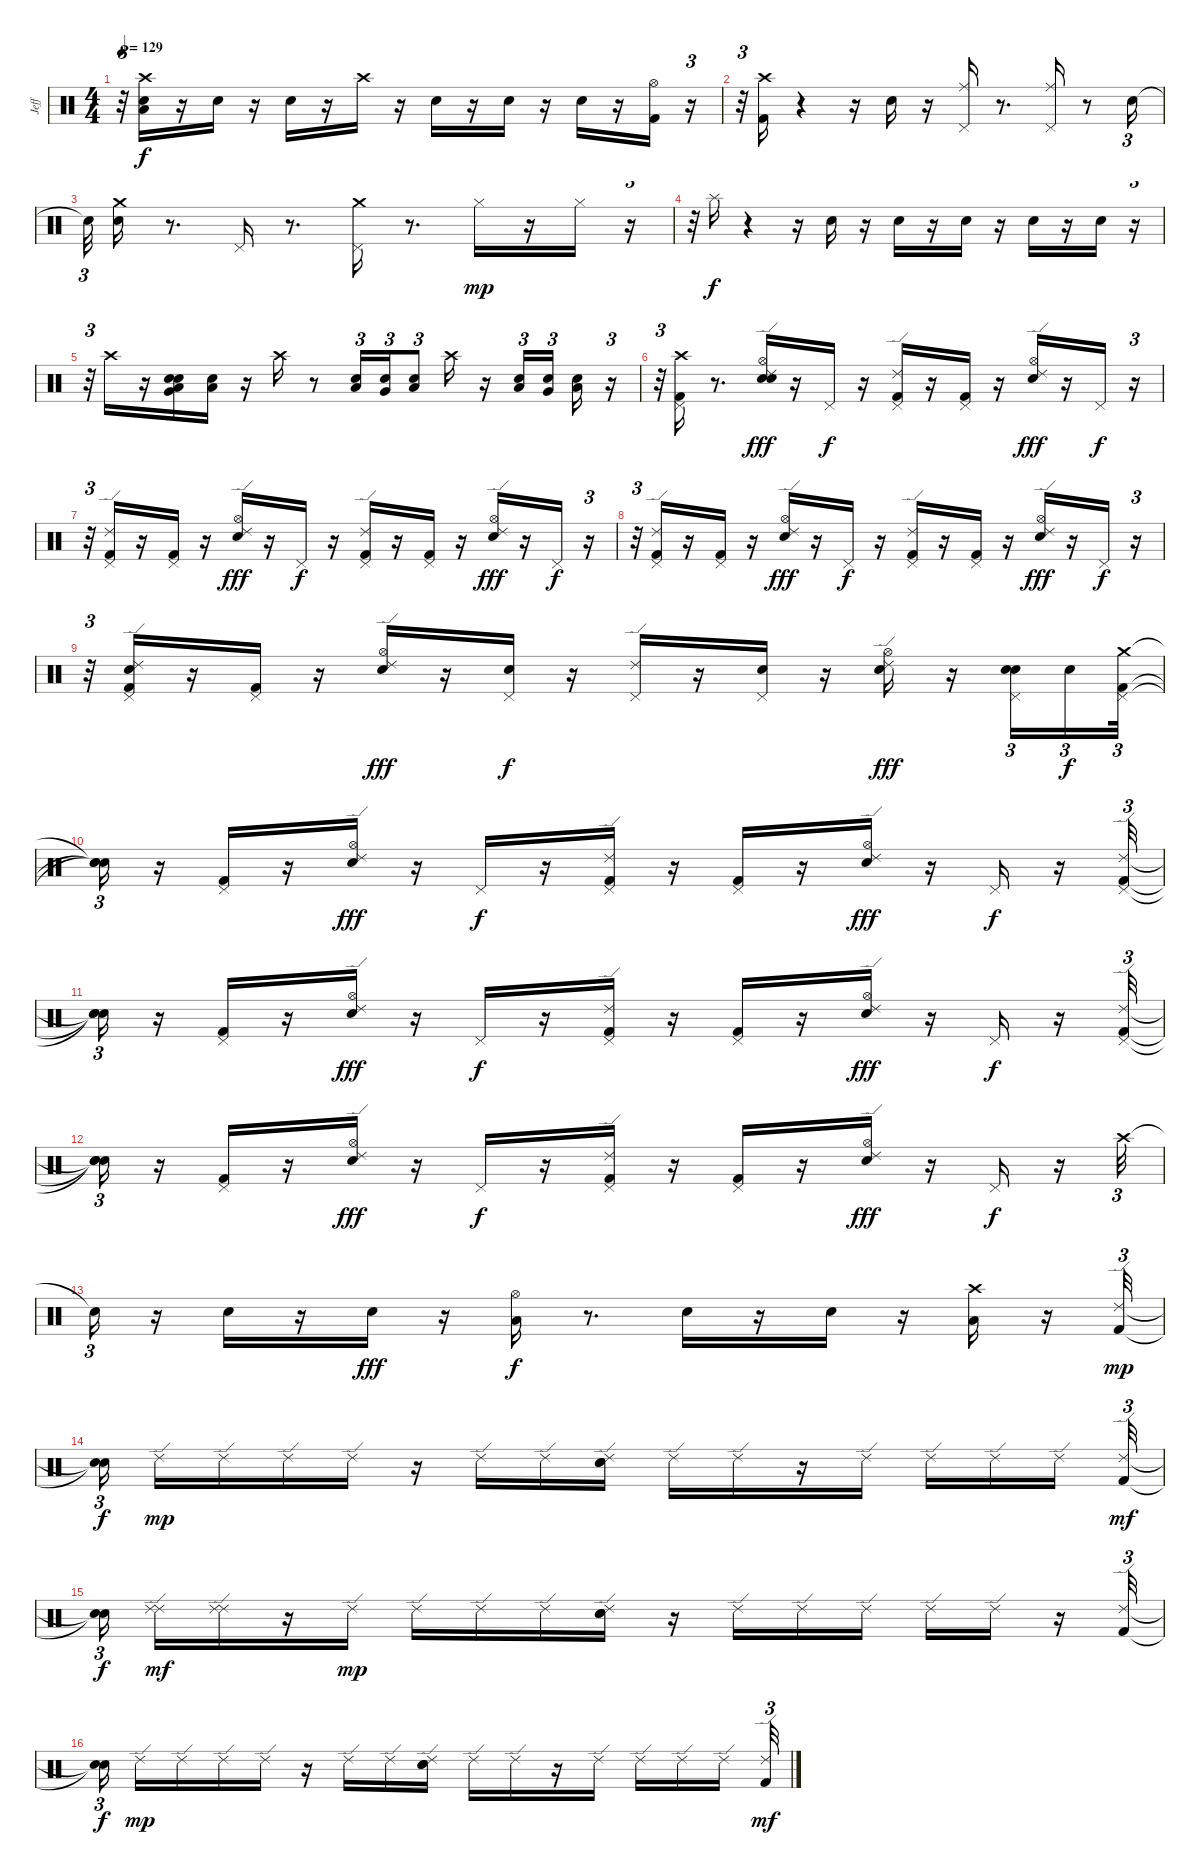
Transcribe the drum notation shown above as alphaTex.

\track ("Jeff" "Jeff") {instrument percussion}
\staff {score}
\articulation defaults
\ts (4 4)
\tempo 129
\clef neutral
\ks c
r.32{tu (3 2) dy f} ("Snare (hit) 2" "Low Tom (hit)" "Crash high (hit)").16 r.16 "Electric Snare (hit)".16 r.16 "Electric Snare (hit)".16 r.16 "Crash high (hit)".16 r.16 "Electric Snare (hit)".16 r.16 "Electric Snare (hit)".16 r.16 "Electric Snare (hit)".16 r.16 ("Kick (hit) 2" "Hi-Hat (open)").16 r.16{tu (3 2)} |
r.32{tu (3 2)} ("Kick (hit) 2" "Crash high (hit)").16 r.4 r.16 "Electric Snare (hit)".16 r.16 ("Pedal Hi-Hat (hit)" "Ride (middle)").16 r.8{d} ("Pedal Hi-Hat (hit)" "Ride (middle)").16 r.8 "Snare (hit) 2".16{tu (3 2)} |
"Snare (hit)"{t}.32{tu (3 2)} ("Electric Snare (hit)" "Crash medium (hit)").16 r.8{d} "Pedal Hi-Hat (hit)".16 r.8{d} ("Pedal Hi-Hat (hit)" "Crash medium (hit)").16 r.8{d} "Hi-Hat (closed)".16{dy mp} r.16 "Hi-Hat (closed)".16 r.16{tu (3 2)} |
r.32{tu (3 2)} "Splash (hit)".16{dy f} r.4 r.16 "Snare (hit) 2".16 r.16 "Snare (hit) 2".16 r.16 "Snare (hit) 2".16 r.16 "Snare (hit) 2".16 r.16 "Snare (hit) 2".16 r.16{tu (3 2)} |
r.32{tu (3 2)} "Crash high (hit)".16 r.16 ("Snare (hit) 2" "Low Tom (hit)" "Snare (hit) 2" "Very Low Tom (hit)").16 ("Snare (hit) 2" "Low Floor Tom (hit)").16 r.16 "Crash high (hit)".16 r.8 ("Electric Snare (hit)" "Low Tom (hit)").16{tu (3 2)} ("Electric Snare (hit)" "Very Low Tom (hit)").16{tu (3 2)} ("Electric Snare (hit)" "Low Floor Tom (hit)").8{tu (3 2)} "Crash high (hit)".16 r.16 ("Snare (hit) 2" "Low Tom (hit)").16{tu (3 2)} ("Snare (hit) 2" "Very Low Tom (hit)").16{tu (3 2) beam splitsecondary} ("Snare (hit) 2" "Low Floor Tom (hit)").16 r.16{tu (3 2)} |
r.32{tu (3 2)} ("Kick (hit) 2" "Pedal Hi-Hat (hit)" "Crash high (hit)").16 r.8{d} ("Snare (hit) 2" "Electric Snare (hit)" "Hi-Hat (open)" "Ride (edge) 2").16{dy fff} r.16 "Pedal Hi-Hat (hit)".16{dy f} r.16 ("Kick (hit) 2" "Pedal Hi-Hat (hit)" "Ride (edge) 2").16 r.16 ("Kick (hit) 2" "Pedal Hi-Hat (hit)").16 r.16 ("Electric Snare (hit)" "Hi-Hat (open)" "Ride (edge) 2").16{dy fff} r.16 "Pedal Hi-Hat (hit)".16{dy f} r.16{tu (3 2)} |
r.32{tu (3 2)} ("Kick (hit) 2" "Pedal Hi-Hat (hit)" "Ride (edge) 2").16 r.16 ("Kick (hit) 2" "Pedal Hi-Hat (hit)").16 r.16 ("Electric Snare (hit)" "Hi-Hat (open)" "Ride (edge) 2").16{dy fff} r.16 "Pedal Hi-Hat (hit)".16{dy f} r.16 ("Kick (hit) 2" "Pedal Hi-Hat (hit)" "Ride (edge) 2").16 r.16 ("Kick (hit) 2" "Pedal Hi-Hat (hit)").16 r.16 ("Electric Snare (hit)" "Hi-Hat (open)" "Ride (edge) 2").16{dy fff} r.16 "Pedal Hi-Hat (hit)".16{dy f} r.16{tu (3 2)} |
r.32{tu (3 2)} ("Kick (hit) 2" "Pedal Hi-Hat (hit)" "Ride (edge) 2").16 r.16 ("Kick (hit) 2" "Pedal Hi-Hat (hit)").16 r.16 ("Electric Snare (hit)" "Hi-Hat (open)" "Ride (edge) 2").16{dy fff} r.16 "Pedal Hi-Hat (hit)".16{dy f} r.16 ("Kick (hit) 2" "Pedal Hi-Hat (hit)" "Ride (edge) 2").16 r.16 ("Kick (hit) 2" "Pedal Hi-Hat (hit)").16 r.16 ("Electric Snare (hit)" "Hi-Hat (open)" "Ride (edge) 2").16{dy fff} r.16 "Pedal Hi-Hat (hit)".16{dy f} r.16{tu (3 2)} |
r.32{tu (3 2)} ("Kick (hit) 2" "Electric Snare (hit)" "Pedal Hi-Hat (hit)" "Ride (edge) 2").16 r.16 ("Kick (hit) 2" "Pedal Hi-Hat (hit)").16 r.16 ("Electric Snare (hit)" "Hi-Hat (open)" "Ride (edge) 2").16{dy fff} r.16 ("Electric Snare (hit)" "Pedal Hi-Hat (hit)").16{dy f} r.16 ("Pedal Hi-Hat (hit)" "Ride (edge) 2").16 r.16 ("Electric Snare (hit)" "Pedal Hi-Hat (hit)").16 r.16 ("Electric Snare (hit)" "Hi-Hat (open)" "Ride (edge) 2").16{dy fff} r.16 ("Electric Snare (hit)" "Pedal Hi-Hat (hit)" "Electric Snare (hit)").16{tu (3 2)} "Electric Snare (hit)".16{tu (3 2) dy f} ("Kick (hit) 2" "Pedal Hi-Hat (hit)" "Crash medium (hit)").32{tu (3 2)} |
("Snare (hit)"{t} "Snare (hit)"{t} "Snare (hit)"{t}).16{tu (3 2)} r.16 ("Kick (hit) 2" "Pedal Hi-Hat (hit)").16 r.16 ("Electric Snare (hit)" "Hi-Hat (open)" "Ride (edge) 2").16{dy fff} r.16 "Pedal Hi-Hat (hit)".16{dy f} r.16 ("Kick (hit) 2" "Pedal Hi-Hat (hit)" "Ride (edge) 2").16 r.16 ("Kick (hit) 2" "Pedal Hi-Hat (hit)").16 r.16 ("Electric Snare (hit)" "Hi-Hat (open)" "Ride (edge) 2").16{dy fff} r.16 "Pedal Hi-Hat (hit)".16{dy f} r.16 ("Kick (hit) 2" "Pedal Hi-Hat (hit)" "Ride (edge) 2").32{tu (3 2)} |
("Snare (hit)"{t} "Snare (hit)"{t} "Snare (hit)"{t}).16{tu (3 2)} r.16 ("Kick (hit) 2" "Pedal Hi-Hat (hit)").16 r.16 ("Electric Snare (hit)" "Hi-Hat (open)" "Ride (edge) 2").16{dy fff} r.16 "Pedal Hi-Hat (hit)".16{dy f} r.16 ("Kick (hit) 2" "Pedal Hi-Hat (hit)" "Ride (edge) 2").16 r.16 ("Kick (hit) 2" "Pedal Hi-Hat (hit)").16 r.16 ("Electric Snare (hit)" "Hi-Hat (open)" "Ride (edge) 2").16{dy fff} r.16 "Pedal Hi-Hat (hit)".16{dy f} r.16 ("Kick (hit) 2" "Pedal Hi-Hat (hit)" "Ride (edge) 2").32{tu (3 2)} |
("Snare (hit)"{t} "Snare (hit)"{t} "Snare (hit)"{t}).16{tu (3 2)} r.16 ("Kick (hit) 2" "Pedal Hi-Hat (hit)").16 r.16 ("Electric Snare (hit)" "Hi-Hat (open)" "Ride (edge) 2").16{dy fff} r.16 "Pedal Hi-Hat (hit)".16{dy f} r.16 ("Kick (hit) 2" "Pedal Hi-Hat (hit)" "Ride (edge) 2").16 r.16 ("Kick (hit) 2" "Pedal Hi-Hat (hit)").16 r.16 ("Electric Snare (hit)" "Hi-Hat (open)" "Ride (edge) 2").16{dy fff} r.16 "Pedal Hi-Hat (hit)".16{dy f} r.16 "Crash high (hit)".32{tu (3 2)} |
"Snare (hit)"{t}.16{tu (3 2)} r.16 "Snare (hit) 2".16 r.16 "Electric Snare (hit)".16{dy fff} r.16 ("Low Floor Tom (hit)" "Hi-Hat (open)").16{dy f} r.8{d} "Snare (hit) 2".16 r.16 "Electric Snare (hit)".16 r.16 ("Low Floor Tom (hit)" "Crash high (hit)").16 r.16 ("Kick (hit) 2" "Ride (edge) 2").32{tu (3 2) dy mp} |
("Snare (hit)"{t} "Snare (hit)"{t}).16{tu (3 2) dy f beam splitsecondary} "Ride (edge) 2".16{dy mp} "Ride (edge) 2".16 "Ride (edge) 2".16 "Ride (edge) 2".16 r.16 "Ride (edge) 2".16 "Ride (edge) 2".16 ("Snare (hit) 2" "Electric Snare (hit)" "Ride (edge) 2").16 "Ride (edge) 2".16 "Ride (edge) 2".16 r.16 "Ride (edge) 2".16 "Ride (edge) 2".16 "Ride (edge) 2".16 "Ride (edge) 2".16{beam splitsecondary} ("Kick (hit) 2" "Ride (edge) 2").32{tu (3 2) dy mf} |
("Snare (hit)"{t} "Snare (hit)"{t}).16{tu (3 2) dy f beam splitsecondary} ("Ride (edge) 2" "Ride (edge) 2").16{dy mf} ("Ride (edge) 2" "Ride (edge) 2").16 r.16 "Ride (edge) 2".16{dy mp} "Ride (edge) 2".16 "Ride (edge) 2".16 "Ride (edge) 2".16 ("Snare (hit) 2" "Electric Snare (hit)" "Ride (edge) 2").16 r.16 "Ride (edge) 2".16 "Ride (edge) 2".16 "Ride (edge) 2".16 "Ride (edge) 2".16 "Ride (edge) 2".16 r.16 ("Kick (hit) 2" "Ride (edge) 2").32{tu (3 2)} |
("Snare (hit)"{t} "Snare (hit)"{t}).16{tu (3 2) dy f beam splitsecondary} "Ride (edge) 2".16{dy mp} "Ride (edge) 2".16 "Ride (edge) 2".16 "Ride (edge) 2".16 r.16 "Ride (edge) 2".16 "Ride (edge) 2".16 ("Snare (hit) 2" "Electric Snare (hit)" "Ride (edge) 2").16 "Ride (edge) 2".16 "Ride (edge) 2".16 r.16 "Ride (edge) 2".16 "Ride (edge) 2".16 "Ride (edge) 2".16 "Ride (edge) 2".16{beam splitsecondary} ("Kick (hit) 2" "Ride (edge) 2").32{tu (3 2) dy mf}
